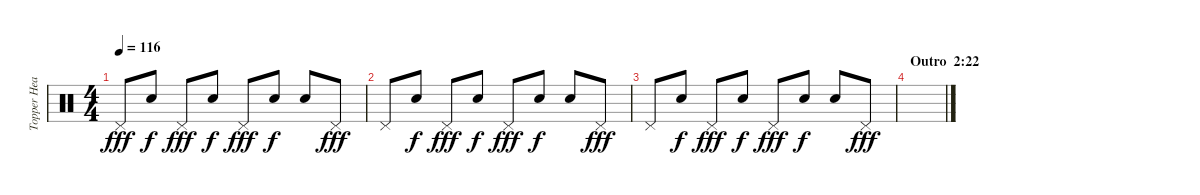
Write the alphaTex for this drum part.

\track ("Topper Headon - Percussion" "Topper Hea") {instrument percussion}
\staff {score}
\articulation defaults
\ts (4 4)
\tempo 116
\clef neutral
\ks c "Pedal Hi-Hat (hit)".8{dy fff} "Hand Clap (hit)".8{dy f} "Pedal Hi-Hat (hit)".8{dy fff} "Hand Clap (hit)".8{dy f} "Pedal Hi-Hat (hit)".8{dy fff} "Hand Clap (hit)".8{dy f} "Hand Clap (hit)".8 "Pedal Hi-Hat (hit)".8{dy fff}
|
"Pedal Hi-Hat (hit)".8 "Hand Clap (hit)".8{dy f} "Pedal Hi-Hat (hit)".8{dy fff} "Hand Clap (hit)".8{dy f} "Pedal Hi-Hat (hit)".8{dy fff} "Hand Clap (hit)".8{dy f} "Hand Clap (hit)".8 "Pedal Hi-Hat (hit)".8{dy fff} |
"Pedal Hi-Hat (hit)".8 "Hand Clap (hit)".8{dy f} "Pedal Hi-Hat (hit)".8{dy fff} "Hand Clap (hit)".8{dy f} "Pedal Hi-Hat (hit)".8{dy fff} "Hand Clap (hit)".8{dy f} "Hand Clap (hit)".8 "Pedal Hi-Hat (hit)".8{dy fff} |
\section ("" "Outro  2:22")
